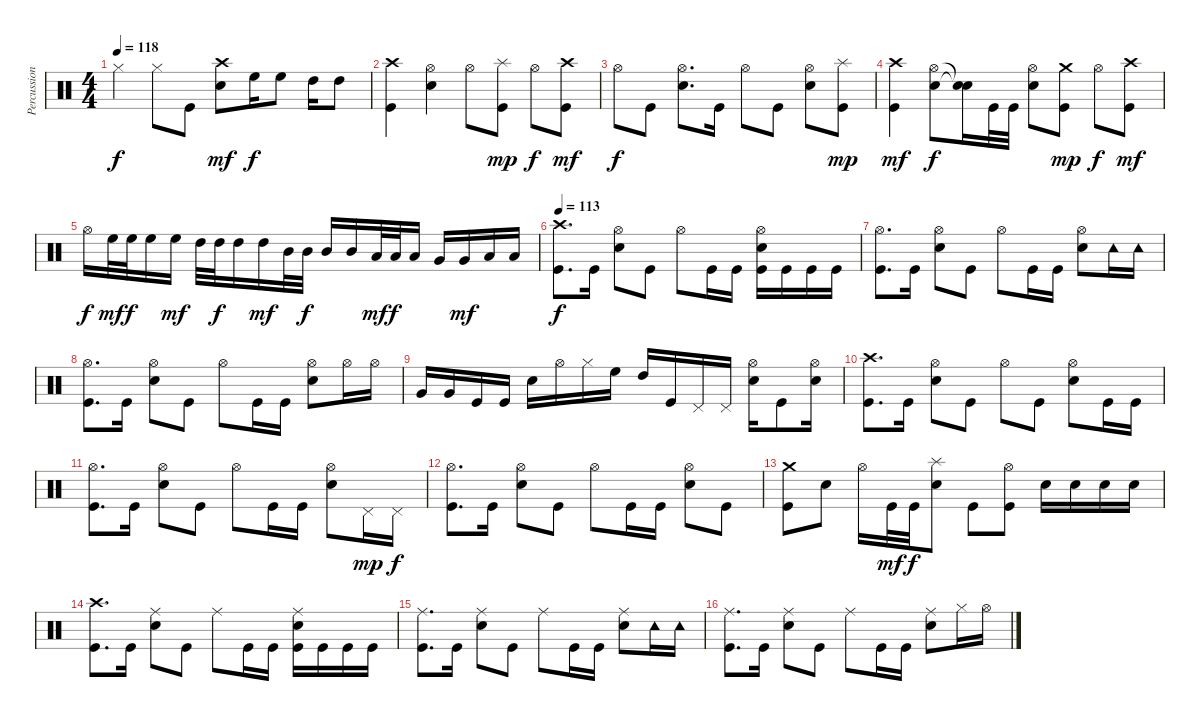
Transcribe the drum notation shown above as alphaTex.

\track ("Percussioni" "Percussion") {instrument percussion}
\staff {score}
\articulation defaults
\ts (4 4)
\tempo 118
\clef neutral
\ks c "Hi-Hat (closed)".4{dy f} "Hi-Hat (closed)".8 "Kick (hit)".8
("Crash high (hit)" "Snare (hit) 2").8{dy mf} "High Floor Tom (hit)".16{dy f} "High Floor Tom (hit)".8 "High Tom (hit)".16 "High Tom (hit)".8 |
("Crash high (hit)" "Kick (hit)").4 ("Hi-Hat (open)" "Snare (hit) 2").4 "Hi-Hat (open)".8 ("Splash (hit)" "Kick (hit)").8{dy mp} "Hi-Hat (open)".8{dy f} ("Crash high (hit)" "Kick (hit)").8{dy mf} |
"Hi-Hat (open)".8{dy f} "Kick (hit)".8 ("Hi-Hat (open)" "Snare (hit) 2").8{d} "Kick (hit)".16 "Hi-Hat (open)".8 "Kick (hit)".8 ("Hi-Hat (open)" "Snare (hit) 2").8 ("Splash (hit)" "Kick (hit)").8{dy mp} |
("Crash high (hit)" "Kick (hit)").4{dy mf} ("Hi-Hat (open)" "Snare (hit) 2").8{dy f} ("Snare (hit)"{t} "Snare (hit)"{t}).16 "Kick (hit)".32 "Kick (hit)".32 ("Hi-Hat (open)" "Snare (hit) 2").8 ("Crash medium (hit)" "Kick (hit)").8{dy mp} "Hi-Hat (open)".8{dy f} ("Crash high (hit)" "Kick (hit)").8{dy mf} |
"Hi-Hat (open)".16{dy f} "High Floor Tom (hit)".32{dy mf} "High Floor Tom (hit)".32{dy f} "High Floor Tom (hit)".16 "High Floor Tom (hit)".16{dy mf} "High Tom (hit)".32 "High Tom (hit)".32{dy f} "High Tom (hit)".16 "High Tom (hit)".16{dy mf} "Mid Tom (hit)".32 "Mid Tom (hit)".32{dy f} "Mid Tom (hit)".16 "Mid Tom (hit)".16 "Low Tom (hit)".32{dy mf} "Low Tom (hit)".32{dy f} "Low Tom (hit)".16 "Very Low Tom (hit)".16 "Very Low Tom (hit)".16{dy mf} "Low Floor Tom (hit)".16 "Low Floor Tom (hit)".16 |
\tempo 113
("Crash high (hit)" "Kick (hit)").8{d dy f} "Kick (hit)".16 ("Hi-Hat (open)" "Snare (hit) 2").8 "Kick (hit)".8 "Hi-Hat (open)".8 "Kick (hit)".16 "Kick (hit)".16 ("Hi-Hat (open)" "Snare (hit) 2" "Kick (hit)").16 "Kick (hit)".16 "Kick (hit)".16 "Kick (hit)".16 |
("Hi-Hat (open)" "Kick (hit)").8{d} "Kick (hit)".16 ("Hi-Hat (open)" "Snare (hit) 2").8 "Kick (hit)".8 "Hi-Hat (open)".8 "Kick (hit)".16 "Kick (hit)".16 ("Hi-Hat (open)" "Snare (hit) 2").8 "Tambourine (hit)".16 "Tambourine (hit)".16 |
("Hi-Hat (open)" "Kick (hit)").8{d} "Kick (hit)".16 ("Hi-Hat (open)" "Snare (hit) 2").8 "Kick (hit)".8 "Hi-Hat (open)".8 "Kick (hit)".16 "Kick (hit)".16 ("Hi-Hat (open)" "Snare (hit) 2").8 "Hi-Hat (open)".16 "Hi-Hat (open)".16 |
"Very Low Tom (hit)".16 "Very Low Tom (hit)".16 "Kick (hit)".16 "Kick (hit)".16 "Snare (hit) 2".16 "Hi-Hat (open)".16 "Hi-Hat (closed)".16 "High Floor Tom (hit)".16 "High Tom (hit)".16 "Kick (hit)".16 "Pedal Hi-Hat (hit)".16 "Pedal Hi-Hat (hit)".16 ("Hi-Hat (open)" "Snare (hit) 2").16 "Kick (hit)".8 ("Hi-Hat (open)" "Snare (hit) 2").16 |
("Crash high (hit)" "Kick (hit)").8{d} "Kick (hit)".16 ("Hi-Hat (open)" "Snare (hit) 2").8 "Kick (hit)".8 "Hi-Hat (open)".8 "Kick (hit)".8 ("Hi-Hat (open)" "Snare (hit) 2").8 "Kick (hit)".16 "Kick (hit)".16 |
("Hi-Hat (open)" "Kick (hit)").8{d} "Kick (hit)".16 ("Hi-Hat (open)" "Snare (hit) 2").8 "Kick (hit)".8 "Hi-Hat (open)".8 "Kick (hit)".16 "Kick (hit)".16 ("Hi-Hat (open)" "Snare (hit) 2").8 "Pedal Hi-Hat (hit)".16{dy mp} "Pedal Hi-Hat (hit)".16{dy f} |
("Hi-Hat (open)" "Kick (hit)").8{d} "Kick (hit)".16 ("Hi-Hat (open)" "Snare (hit) 2").8 "Kick (hit)".8 "Hi-Hat (open)".8 "Kick (hit)".16 "Kick (hit)".16 ("Hi-Hat (open)" "Snare (hit) 2").8 "Kick (hit)".8 |
("Crash medium (hit)" "Kick (hit)").8 "Snare (hit) 2".8 "Hi-Hat (open)".16 "Kick (hit)".32{dy mf} "Kick (hit)".32{dy f} ("Splash (hit)" "Snare (hit) 2").8 "Kick (hit)".8 ("Hi-Hat (open)" "Kick (hit)").8 "Snare (hit) 2".16 "Snare (hit) 2".16 "Snare (hit) 2".16 "Snare (hit) 2".16 |
("Crash high (hit)" "Kick (hit)").8{d} "Kick (hit)".16 ("Ride (middle)" "Snare (hit) 2").8 "Kick (hit)".8 "Ride (middle)".8 "Kick (hit)".16 "Kick (hit)".16 ("Ride (middle)" "Snare (hit) 2" "Kick (hit)").16 "Kick (hit)".16 "Kick (hit)".16 "Kick (hit)".16 |
("Ride (middle)" "Kick (hit)").8{d} "Kick (hit)".16 ("Ride (middle)" "Snare (hit) 2").8 "Kick (hit)".8 "Ride (middle)".8 "Kick (hit)".16 "Kick (hit)".16 ("Ride (middle)" "Snare (hit) 2").8 "Tambourine (hit)".16 "Tambourine (hit)".16 |
("Ride (middle)" "Kick (hit)").8{d} "Kick (hit)".16 ("Ride (middle)" "Snare (hit) 2").8 "Kick (hit)".8 "Ride (middle)".8 "Kick (hit)".16 "Kick (hit)".16 ("Ride (middle)" "Snare (hit) 2").8 "Hi-Hat (closed)".16 "Hi-Hat (open)".16
